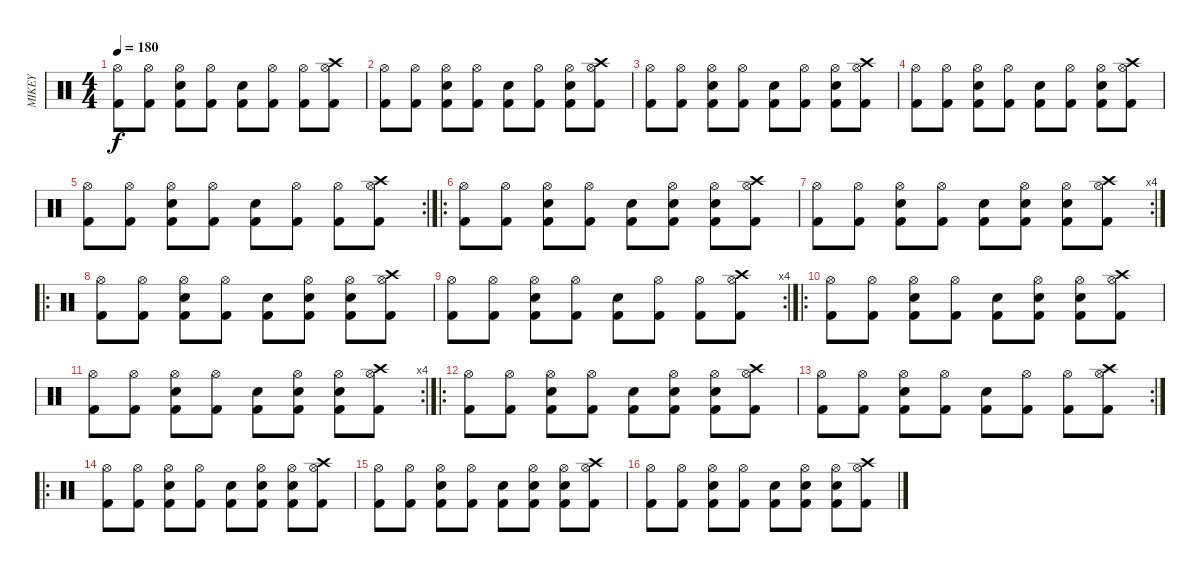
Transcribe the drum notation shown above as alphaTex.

\track ("MIKEY" "MIKEY") {instrument percussion}
\staff {score}
\articulation defaults
\ts (4 4)
\tempo 180
\clef neutral
\ks c
("Hi-Hat (open)" "Kick (hit) 2").8{dy f} ("Hi-Hat (open)" "Kick (hit) 2").8 ("Snare (hit) 2" "Hi-Hat (open)" "Kick (hit) 2").8 ("Hi-Hat (open)" "Kick (hit) 2").8 ("Snare (hit) 2" "Kick (hit) 2").8 ("Hi-Hat (open)" "Kick (hit) 2").8 ("Hi-Hat (open)" "Kick (hit) 2").8 ("Crash high (hit)" "Hi-Hat (open)" "Kick (hit) 2").8 |
("Hi-Hat (open)" "Kick (hit) 2").8 ("Hi-Hat (open)" "Kick (hit) 2").8 ("Snare (hit) 2" "Hi-Hat (open)" "Kick (hit) 2").8 ("Hi-Hat (open)" "Kick (hit) 2").8 ("Snare (hit) 2" "Kick (hit) 2").8 ("Hi-Hat (open)" "Kick (hit) 2").8 ("Snare (hit) 2" "Hi-Hat (open)" "Kick (hit) 2").8 ("Crash high (hit)" "Hi-Hat (open)" "Kick (hit) 2").8 |
("Hi-Hat (open)" "Kick (hit) 2").8 ("Hi-Hat (open)" "Kick (hit) 2").8 ("Snare (hit) 2" "Hi-Hat (open)" "Kick (hit) 2").8 ("Hi-Hat (open)" "Kick (hit) 2").8 ("Snare (hit) 2" "Kick (hit) 2").8 ("Hi-Hat (open)" "Kick (hit) 2").8 ("Snare (hit) 2" "Hi-Hat (open)" "Kick (hit) 2").8 ("Crash high (hit)" "Hi-Hat (open)" "Kick (hit) 2").8 |
("Hi-Hat (open)" "Kick (hit) 2").8 ("Hi-Hat (open)" "Kick (hit) 2").8 ("Snare (hit) 2" "Hi-Hat (open)" "Kick (hit) 2").8 ("Hi-Hat (open)" "Kick (hit) 2").8 ("Snare (hit) 2" "Kick (hit) 2").8 ("Hi-Hat (open)" "Kick (hit) 2").8 ("Snare (hit) 2" "Hi-Hat (open)" "Kick (hit) 2").8 ("Crash high (hit)" "Hi-Hat (open)" "Kick (hit) 2").8 |
\rc 2
("Hi-Hat (open)" "Kick (hit) 2").8 ("Hi-Hat (open)" "Kick (hit) 2").8 ("Snare (hit) 2" "Hi-Hat (open)" "Kick (hit) 2").8 ("Hi-Hat (open)" "Kick (hit) 2").8 ("Snare (hit) 2" "Kick (hit) 2").8 ("Hi-Hat (open)" "Kick (hit) 2").8 ("Hi-Hat (open)" "Kick (hit) 2").8 ("Crash high (hit)" "Hi-Hat (open)" "Kick (hit) 2").8 |
\ro
("Hi-Hat (open)" "Kick (hit) 2").8 ("Hi-Hat (open)" "Kick (hit) 2").8 ("Snare (hit) 2" "Hi-Hat (open)" "Kick (hit) 2").8 ("Hi-Hat (open)" "Kick (hit) 2").8 ("Snare (hit) 2" "Kick (hit) 2").8 ("Snare (hit) 2" "Hi-Hat (open)" "Kick (hit) 2").8 ("Snare (hit) 2" "Hi-Hat (open)" "Kick (hit) 2").8 ("Crash high (hit)" "Hi-Hat (open)" "Kick (hit) 2").8 |
\rc 4
("Hi-Hat (open)" "Kick (hit) 2").8 ("Hi-Hat (open)" "Kick (hit) 2").8 ("Snare (hit) 2" "Hi-Hat (open)" "Kick (hit) 2").8 ("Hi-Hat (open)" "Kick (hit) 2").8 ("Snare (hit) 2" "Kick (hit) 2").8 ("Snare (hit) 2" "Hi-Hat (open)" "Kick (hit) 2").8 ("Snare (hit) 2" "Hi-Hat (open)" "Kick (hit) 2").8 ("Crash high (hit)" "Hi-Hat (open)" "Kick (hit) 2").8 |
\ro
("Hi-Hat (open)" "Kick (hit) 2").8 ("Hi-Hat (open)" "Kick (hit) 2").8 ("Snare (hit) 2" "Hi-Hat (open)" "Kick (hit) 2").8 ("Hi-Hat (open)" "Kick (hit) 2").8 ("Snare (hit) 2" "Kick (hit) 2").8 ("Snare (hit) 2" "Hi-Hat (open)" "Kick (hit) 2").8 ("Snare (hit) 2" "Hi-Hat (open)" "Kick (hit) 2").8 ("Crash high (hit)" "Hi-Hat (open)" "Kick (hit) 2").8 |
\rc 4
("Hi-Hat (open)" "Kick (hit) 2").8 ("Hi-Hat (open)" "Kick (hit) 2").8 ("Snare (hit) 2" "Hi-Hat (open)" "Kick (hit) 2").8 ("Hi-Hat (open)" "Kick (hit) 2").8 ("Snare (hit) 2" "Kick (hit) 2").8 ("Hi-Hat (open)" "Kick (hit) 2").8 ("Hi-Hat (open)" "Kick (hit) 2").8 ("Crash high (hit)" "Hi-Hat (open)" "Kick (hit) 2").8 |
\ro
("Hi-Hat (open)" "Kick (hit) 2").8 ("Hi-Hat (open)" "Kick (hit) 2").8 ("Snare (hit) 2" "Hi-Hat (open)" "Kick (hit) 2").8 ("Hi-Hat (open)" "Kick (hit) 2").8 ("Snare (hit) 2" "Kick (hit) 2").8 ("Snare (hit) 2" "Hi-Hat (open)" "Kick (hit) 2").8 ("Snare (hit) 2" "Hi-Hat (open)" "Kick (hit) 2").8 ("Crash high (hit)" "Hi-Hat (open)" "Kick (hit) 2").8 |
\rc 4
("Hi-Hat (open)" "Kick (hit) 2").8 ("Hi-Hat (open)" "Kick (hit) 2").8 ("Snare (hit) 2" "Hi-Hat (open)" "Kick (hit) 2").8 ("Hi-Hat (open)" "Kick (hit) 2").8 ("Snare (hit) 2" "Kick (hit) 2").8 ("Snare (hit) 2" "Hi-Hat (open)" "Kick (hit) 2").8 ("Snare (hit) 2" "Hi-Hat (open)" "Kick (hit) 2").8 ("Crash high (hit)" "Hi-Hat (open)" "Kick (hit) 2").8 |
\ro
("Hi-Hat (open)" "Kick (hit) 2").8 ("Hi-Hat (open)" "Kick (hit) 2").8 ("Snare (hit) 2" "Hi-Hat (open)" "Kick (hit) 2").8 ("Hi-Hat (open)" "Kick (hit) 2").8 ("Snare (hit) 2" "Kick (hit) 2").8 ("Snare (hit) 2" "Hi-Hat (open)" "Kick (hit) 2").8 ("Snare (hit) 2" "Hi-Hat (open)" "Kick (hit) 2").8 ("Crash high (hit)" "Hi-Hat (open)" "Kick (hit) 2").8 |
\rc 2
("Hi-Hat (open)" "Kick (hit) 2").8 ("Hi-Hat (open)" "Kick (hit) 2").8 ("Snare (hit) 2" "Hi-Hat (open)" "Kick (hit) 2").8 ("Hi-Hat (open)" "Kick (hit) 2").8 ("Snare (hit) 2" "Kick (hit) 2").8 ("Hi-Hat (open)" "Kick (hit) 2").8 ("Hi-Hat (open)" "Kick (hit) 2").8 ("Crash high (hit)" "Hi-Hat (open)" "Kick (hit) 2").8 |
\ro
("Hi-Hat (open)" "Kick (hit) 2").8 ("Hi-Hat (open)" "Kick (hit) 2").8 ("Snare (hit) 2" "Hi-Hat (open)" "Kick (hit) 2").8 ("Hi-Hat (open)" "Kick (hit) 2").8 ("Snare (hit) 2" "Kick (hit) 2").8 ("Snare (hit) 2" "Hi-Hat (open)" "Kick (hit) 2").8 ("Snare (hit) 2" "Hi-Hat (open)" "Kick (hit) 2").8 ("Crash high (hit)" "Hi-Hat (open)" "Kick (hit) 2").8 |
("Hi-Hat (open)" "Kick (hit) 2").8 ("Hi-Hat (open)" "Kick (hit) 2").8 ("Snare (hit) 2" "Hi-Hat (open)" "Kick (hit) 2").8 ("Hi-Hat (open)" "Kick (hit) 2").8 ("Snare (hit) 2" "Kick (hit) 2").8 ("Snare (hit) 2" "Hi-Hat (open)" "Kick (hit) 2").8 ("Snare (hit) 2" "Hi-Hat (open)" "Kick (hit) 2").8 ("Crash high (hit)" "Hi-Hat (open)" "Kick (hit) 2").8 |
("Hi-Hat (open)" "Kick (hit) 2").8 ("Hi-Hat (open)" "Kick (hit) 2").8 ("Snare (hit) 2" "Hi-Hat (open)" "Kick (hit) 2").8 ("Hi-Hat (open)" "Kick (hit) 2").8 ("Snare (hit) 2" "Kick (hit) 2").8 ("Snare (hit) 2" "Hi-Hat (open)" "Kick (hit) 2").8 ("Snare (hit) 2" "Hi-Hat (open)" "Kick (hit) 2").8 ("Crash high (hit)" "Hi-Hat (open)" "Kick (hit) 2").8
